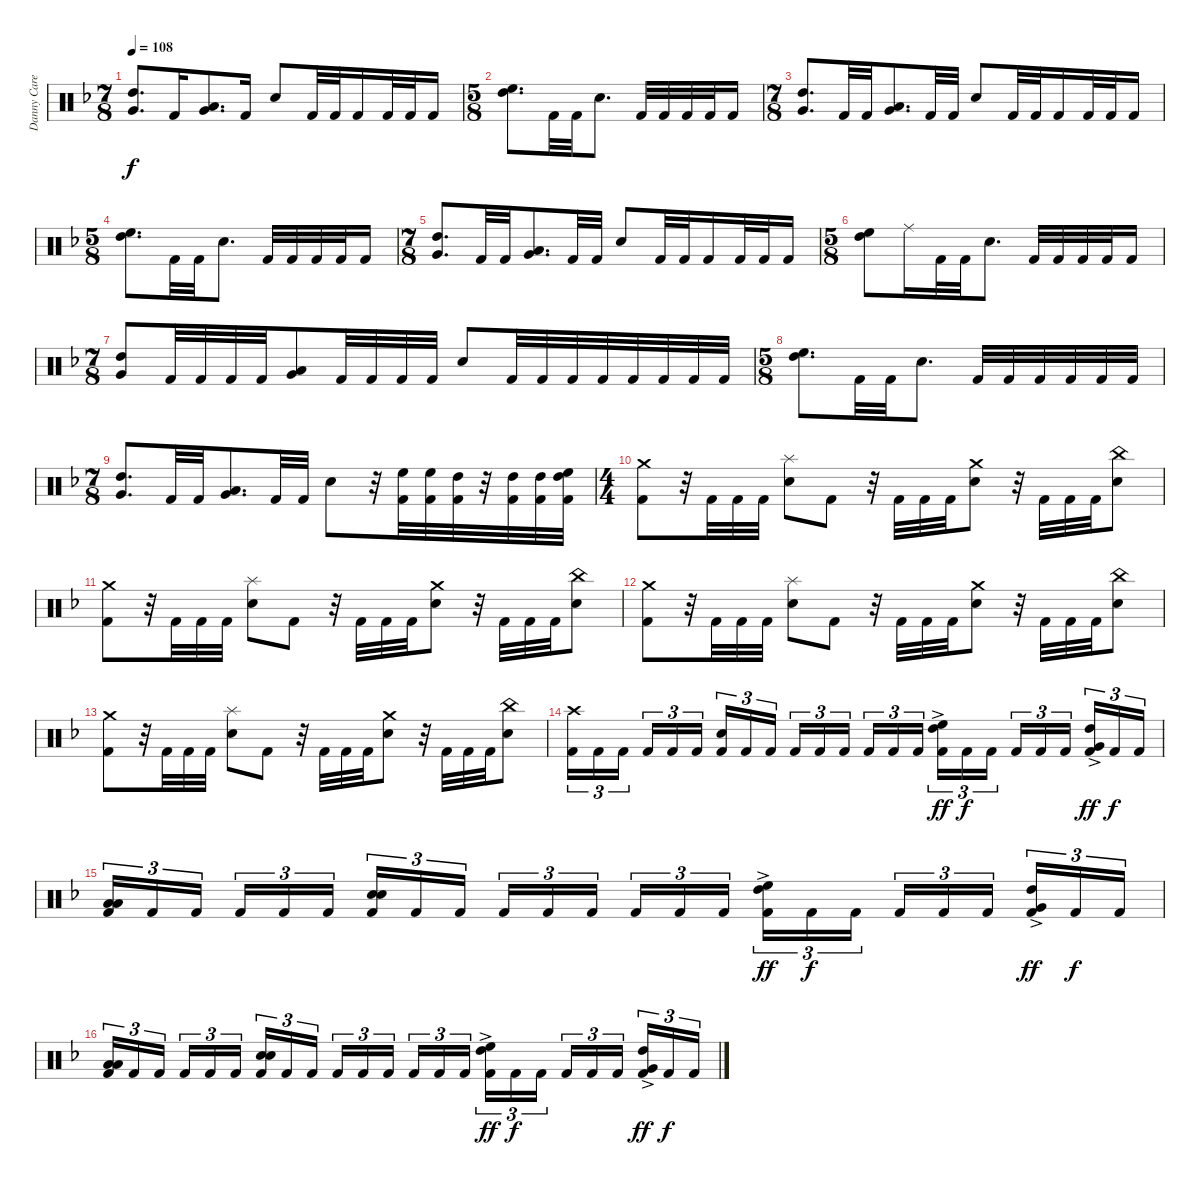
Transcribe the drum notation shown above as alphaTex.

\track ("Danny Carey" "Danny Care") {instrument percussion}
\staff {score}
\articulation defaults
\ts (7 8)
\tempo 108
\clef neutral
\ks dminor
("High Tom (hit)" "Very Low Tom (hit)").8{d dy f} "Kick (hit) 2".16 ("Very Low Tom (hit)" "Low Floor Tom (hit)").8{d} "Kick (hit) 2".16 "Electric Snare (hit)".8 "Kick (hit) 2".32 "Kick (hit) 2".32 "Kick (hit) 2".16 "Kick (hit) 2".32 "Kick (hit) 2".32 "Kick (hit) 2".16 |
\ts (5 8)
("High Floor Tom (hit)" "High Tom (hit)").8{d} "Kick (hit) 2".32 "Kick (hit) 2".32 "Electric Snare (hit)".8{d} "Kick (hit) 2".32 "Kick (hit) 2".32 "Kick (hit) 2".32 "Kick (hit) 2".32 "Kick (hit) 2".16 |
\ts (7 8)
("High Tom (hit)" "Very Low Tom (hit)").8{d} "Kick (hit) 2".32 "Kick (hit) 2".32 ("Very Low Tom (hit)" "Low Floor Tom (hit)").8{d} "Kick (hit) 2".32 "Kick (hit) 2".32 "Electric Snare (hit)".8 "Kick (hit) 2".32 "Kick (hit) 2".32 "Kick (hit) 2".16 "Kick (hit) 2".32 "Kick (hit) 2".32 "Kick (hit) 2".16 |
\ts (5 8)
("High Floor Tom (hit)" "High Tom (hit)").8{d} "Kick (hit) 2".32 "Kick (hit) 2".32 "Electric Snare (hit)".8{d} "Kick (hit) 2".32 "Kick (hit) 2".32 "Kick (hit) 2".32 "Kick (hit) 2".32 "Kick (hit) 2".16 |
\ts (7 8)
("High Tom (hit)" "Very Low Tom (hit)").8{d} "Kick (hit) 2".32 "Kick (hit) 2".32 ("Very Low Tom (hit)" "Low Floor Tom (hit)").8{d} "Kick (hit) 2".32 "Kick (hit) 2".32 "Electric Snare (hit)".8 "Kick (hit) 2".32 "Kick (hit) 2".32 "Kick (hit) 2".16 "Kick (hit) 2".32 "Kick (hit) 2".32 "Kick (hit) 2".16 |
\ts (5 8)
("High Floor Tom (hit)" "High Tom (hit)").8 "Ride (middle)".16 "Kick (hit) 2".32 "Kick (hit) 2".32 "Electric Snare (hit)".8{d} "Kick (hit) 2".32 "Kick (hit) 2".32 "Kick (hit) 2".32 "Kick (hit) 2".32 "Kick (hit) 2".16 |
\ts (7 8)
("High Tom (hit)" "Very Low Tom (hit)").8 "Kick (hit) 2".32 "Kick (hit) 2".32 "Kick (hit) 2".32 "Kick (hit) 2".32 ("Very Low Tom (hit)" "Low Floor Tom (hit)").8 "Kick (hit) 2".32 "Kick (hit) 2".32 "Kick (hit) 2".32 "Kick (hit) 2".32 "Electric Snare (hit)".8 "Kick (hit) 2".32 "Kick (hit) 2".32 "Kick (hit) 2".32 "Kick (hit) 2".32 "Kick (hit) 2".32 "Kick (hit) 2".32 "Kick (hit) 2".32 "Kick (hit) 2".32 |
\ts (5 8)
("High Floor Tom (hit)" "High Tom (hit)").8{d} "Kick (hit) 2".32 "Kick (hit) 2".32 "Electric Snare (hit)".8{d} "Kick (hit) 2".32 "Kick (hit) 2".32 "Kick (hit) 2".32 "Kick (hit) 2".32 "Kick (hit) 2".32 "Kick (hit) 2".32 |
\ts (7 8)
("High Tom (hit)" "Very Low Tom (hit)").8{d} "Kick (hit) 2".32 "Kick (hit) 2".32 ("Very Low Tom (hit)" "Low Floor Tom (hit)").8{d} "Kick (hit) 2".32 "Kick (hit) 2".32 "Electric Snare (hit)".8 r.32 ("High Floor Tom (hit)" "Kick (hit) 2").32 ("High Floor Tom (hit)" "Kick (hit) 2").32 ("High Tom (hit)" "Kick (hit) 2").32 r.32 ("High Tom (hit)" "Kick (hit) 2").32 ("High Tom (hit)" "Kick (hit) 2").32 ("High Floor Tom (hit)" "High Tom (hit)" "Kick (hit) 2").32 |
\ts (4 4)
("Crash medium (hit)" "Kick (hit) 2").8 r.32 "Kick (hit) 2".32 "Kick (hit) 2".32 "Kick (hit) 2".32 ("Splash (hit)" "Electric Snare (hit)").8 "Kick (hit) 2".8 r.32 "Kick (hit) 2".32 "Kick (hit) 2".32 "Kick (hit) 2".32 ("Crash medium (hit)" "Electric Snare (hit)").8 r.32 "Kick (hit) 2".32 "Kick (hit) 2".32 "Kick (hit) 2".32 ("China (hit)" "Electric Snare (hit)").8 |
("Crash medium (hit)" "Kick (hit) 2").8 r.32 "Kick (hit) 2".32 "Kick (hit) 2".32 "Kick (hit) 2".32 ("Splash (hit)" "Electric Snare (hit)").8 "Kick (hit) 2".8 r.32 "Kick (hit) 2".32 "Kick (hit) 2".32 "Kick (hit) 2".32 ("Crash medium (hit)" "Electric Snare (hit)").8 r.32 "Kick (hit) 2".32 "Kick (hit) 2".32 "Kick (hit) 2".32 ("China (hit)" "Electric Snare (hit)").8 |
("Crash medium (hit)" "Kick (hit) 2").8 r.32 "Kick (hit) 2".32 "Kick (hit) 2".32 "Kick (hit) 2".32 ("Splash (hit)" "Electric Snare (hit)").8 "Kick (hit) 2".8 r.32 "Kick (hit) 2".32 "Kick (hit) 2".32 "Kick (hit) 2".32 ("Crash medium (hit)" "Electric Snare (hit)").8 r.32 "Kick (hit) 2".32 "Kick (hit) 2".32 "Kick (hit) 2".32 ("China (hit)" "Electric Snare (hit)").8 |
("Crash medium (hit)" "Kick (hit) 2").8 r.32 "Kick (hit) 2".32 "Kick (hit) 2".32 "Kick (hit) 2".32 ("Splash (hit)" "Electric Snare (hit)").8 "Kick (hit) 2".8 r.32 "Kick (hit) 2".32 "Kick (hit) 2".32 "Kick (hit) 2".32 ("Crash medium (hit)" "Electric Snare (hit)").8 r.32 "Kick (hit) 2".32 "Kick (hit) 2".32 "Kick (hit) 2".32 ("China (hit)" "Electric Snare (hit)").8 |
("Crash high (hit)" "Kick (hit) 2").16{tu (3 2)} "Kick (hit) 2".16{tu (3 2)} "Kick (hit) 2".16{tu (3 2) beam splitsecondary} "Kick (hit) 2".16{tu (3 2)} "Kick (hit) 2".16{tu (3 2)} "Kick (hit) 2".16{tu (3 2)} ("Electric Snare (hit)" "Kick (hit) 2").16{tu (3 2)} "Kick (hit) 2".16{tu (3 2)} "Kick (hit) 2".16{tu (3 2) beam splitsecondary} "Kick (hit) 2".16{tu (3 2)} "Kick (hit) 2".16{tu (3 2)} "Kick (hit) 2".16{tu (3 2)} "Kick (hit) 2".16{tu (3 2)} "Kick (hit) 2".16{tu (3 2)} "Kick (hit) 2".16{tu (3 2) beam splitsecondary} ("High Floor Tom (hit)"{ac} "High Tom (hit)"{ac} "Kick (hit) 2").16{tu (3 2) dy ff} "Kick (hit) 2".16{tu (3 2) dy f} "Kick (hit) 2".16{tu (3 2)} "Kick (hit) 2".16{tu (3 2)} "Kick (hit) 2".16{tu (3 2)} "Kick (hit) 2".16{tu (3 2) beam splitsecondary} ("High Tom (hit)"{ac} "Very Low Tom (hit)"{ac} "Kick (hit) 2").16{tu (3 2) dy ff} "Kick (hit) 2".16{tu (3 2) dy f} "Kick (hit) 2".16{tu (3 2)} |
("Low Floor Tom (hit)" "Low Floor Tom (hit)" "Kick (hit) 2").16{tu (3 2)} "Kick (hit) 2".16{tu (3 2)} "Kick (hit) 2".16{tu (3 2) beam splitsecondary} "Kick (hit) 2".16{tu (3 2)} "Kick (hit) 2".16{tu (3 2)} "Kick (hit) 2".16{tu (3 2)} ("Electric Snare (hit)" "Electric Snare (hit)" "Kick (hit) 2").16{tu (3 2)} "Kick (hit) 2".16{tu (3 2)} "Kick (hit) 2".16{tu (3 2) beam splitsecondary} "Kick (hit) 2".16{tu (3 2)} "Kick (hit) 2".16{tu (3 2)} "Kick (hit) 2".16{tu (3 2)} "Kick (hit) 2".16{tu (3 2)} "Kick (hit) 2".16{tu (3 2)} "Kick (hit) 2".16{tu (3 2) beam splitsecondary} ("High Floor Tom (hit)"{ac} "High Tom (hit)"{ac} "Kick (hit) 2").16{tu (3 2) dy ff} "Kick (hit) 2".16{tu (3 2) dy f} "Kick (hit) 2".16{tu (3 2)} "Kick (hit) 2".16{tu (3 2)} "Kick (hit) 2".16{tu (3 2)} "Kick (hit) 2".16{tu (3 2) beam splitsecondary} ("High Tom (hit)"{ac} "Very Low Tom (hit)"{ac} "Kick (hit) 2").16{tu (3 2) dy ff} "Kick (hit) 2".16{tu (3 2) dy f} "Kick (hit) 2".16{tu (3 2)} |
("Low Floor Tom (hit)" "Low Floor Tom (hit)" "Kick (hit) 2").16{tu (3 2)} "Kick (hit) 2".16{tu (3 2)} "Kick (hit) 2".16{tu (3 2) beam splitsecondary} "Kick (hit) 2".16{tu (3 2)} "Kick (hit) 2".16{tu (3 2)} "Kick (hit) 2".16{tu (3 2)} ("Electric Snare (hit)" "Electric Snare (hit)" "Kick (hit) 2").16{tu (3 2)} "Kick (hit) 2".16{tu (3 2)} "Kick (hit) 2".16{tu (3 2) beam splitsecondary} "Kick (hit) 2".16{tu (3 2)} "Kick (hit) 2".16{tu (3 2)} "Kick (hit) 2".16{tu (3 2)} "Kick (hit) 2".16{tu (3 2)} "Kick (hit) 2".16{tu (3 2)} "Kick (hit) 2".16{tu (3 2) beam splitsecondary} ("High Floor Tom (hit)"{ac} "High Tom (hit)"{ac} "Kick (hit) 2").16{tu (3 2) dy ff} "Kick (hit) 2".16{tu (3 2) dy f} "Kick (hit) 2".16{tu (3 2)} "Kick (hit) 2".16{tu (3 2)} "Kick (hit) 2".16{tu (3 2)} "Kick (hit) 2".16{tu (3 2) beam splitsecondary} ("High Tom (hit)"{ac} "Very Low Tom (hit)"{ac} "Kick (hit) 2").16{tu (3 2) dy ff} "Kick (hit) 2".16{tu (3 2) dy f} "Kick (hit) 2".16{tu (3 2)}
